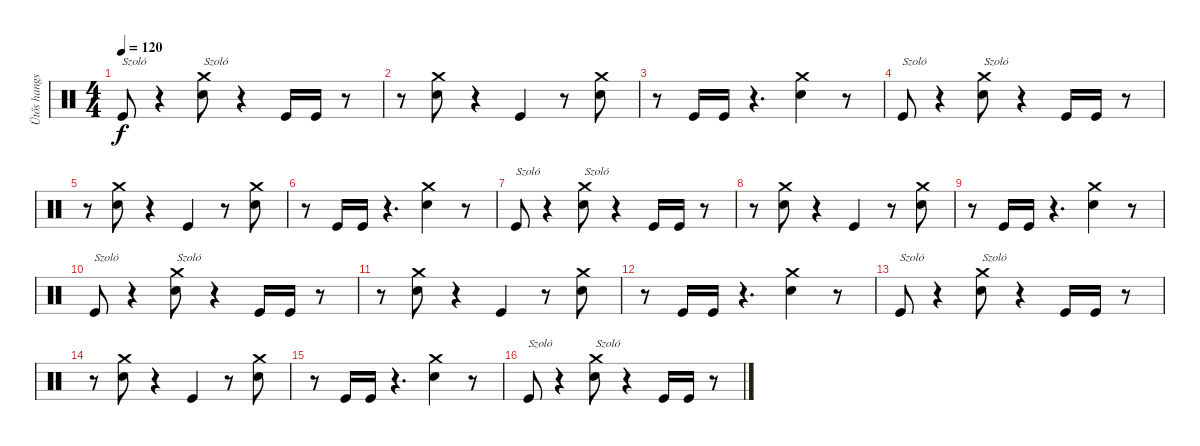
\track ("Ütős hangszer" "Ütős hangs") {instrument percussion}
\staff {score}
\articulation defaults
\ts (4 4)
\tempo 120
\clef neutral
\ks c "Kick (hit)".8{txt "Szoló" dy f}
r.4 ("Crash medium (hit)" "Snare (hit) 2").8{txt "Szoló"} r.4 "Kick (hit)".16 "Kick (hit)".16 r.8 |
r.8 ("Crash medium (hit)" "Snare (hit) 2").8 r.4 "Kick (hit)".4 r.8 ("Crash medium (hit)" "Snare (hit) 2").8 |
r.8 "Kick (hit)".16 "Kick (hit)".16 r.4{d} ("Crash medium (hit)" "Snare (hit) 2").4 r.8 |
"Kick (hit)".8{txt "Szoló"} r.4 ("Crash medium (hit)" "Snare (hit) 2").8{txt "Szoló"} r.4 "Kick (hit)".16 "Kick (hit)".16 r.8 |
r.8 ("Crash medium (hit)" "Snare (hit) 2").8 r.4 "Kick (hit)".4 r.8 ("Crash medium (hit)" "Snare (hit) 2").8 |
r.8 "Kick (hit)".16 "Kick (hit)".16 r.4{d} ("Crash medium (hit)" "Snare (hit) 2").4 r.8 |
"Kick (hit)".8{txt "Szoló"} r.4 ("Crash medium (hit)" "Snare (hit) 2").8{txt "Szoló"} r.4 "Kick (hit)".16 "Kick (hit)".16 r.8 |
r.8 ("Crash medium (hit)" "Snare (hit) 2").8 r.4 "Kick (hit)".4 r.8 ("Crash medium (hit)" "Snare (hit) 2").8 |
r.8 "Kick (hit)".16 "Kick (hit)".16 r.4{d} ("Crash medium (hit)" "Snare (hit) 2").4 r.8 |
"Kick (hit)".8{txt "Szoló"} r.4 ("Crash medium (hit)" "Snare (hit) 2").8{txt "Szoló"} r.4 "Kick (hit)".16 "Kick (hit)".16 r.8 |
r.8 ("Crash medium (hit)" "Snare (hit) 2").8 r.4 "Kick (hit)".4 r.8 ("Crash medium (hit)" "Snare (hit) 2").8 |
r.8 "Kick (hit)".16 "Kick (hit)".16 r.4{d} ("Crash medium (hit)" "Snare (hit) 2").4 r.8 |
"Kick (hit)".8{txt "Szoló"} r.4 ("Crash medium (hit)" "Snare (hit) 2").8{txt "Szoló"} r.4 "Kick (hit)".16 "Kick (hit)".16 r.8 |
r.8 ("Crash medium (hit)" "Snare (hit) 2").8 r.4 "Kick (hit)".4 r.8 ("Crash medium (hit)" "Snare (hit) 2").8 |
r.8 "Kick (hit)".16 "Kick (hit)".16 r.4{d} ("Crash medium (hit)" "Snare (hit) 2").4 r.8 |
"Kick (hit)".8{txt "Szoló"} r.4 ("Crash medium (hit)" "Snare (hit) 2").8{txt "Szoló"} r.4 "Kick (hit)".16 "Kick (hit)".16 r.8
